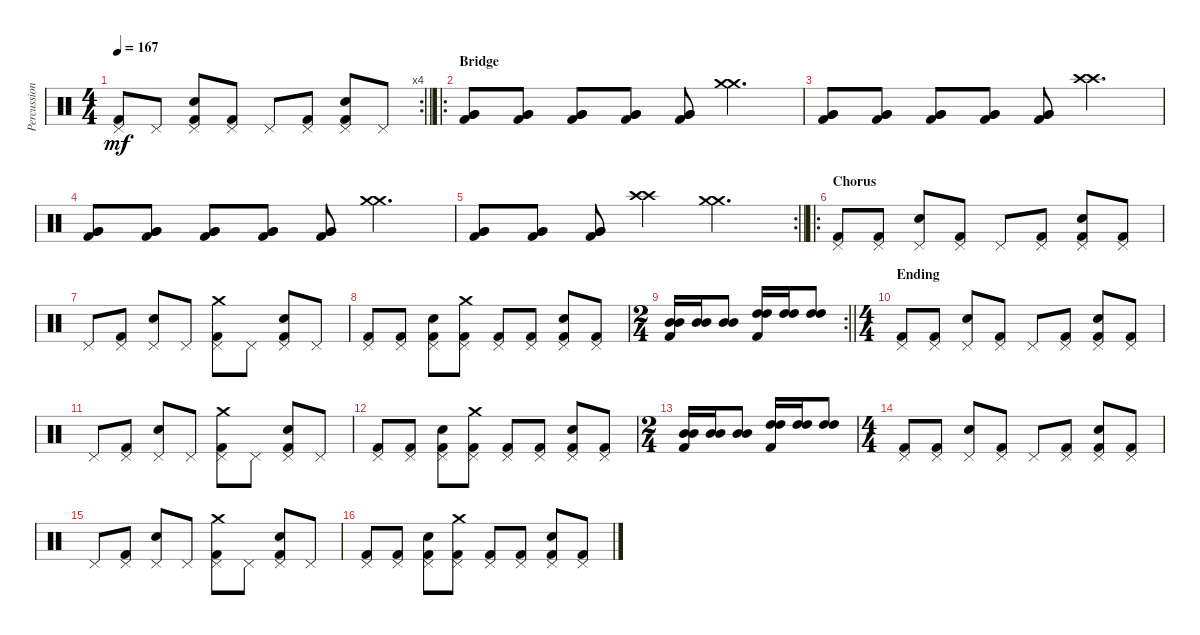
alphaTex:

\track ("Percussioni" "Percussion") {instrument percussion}
\staff {score}
\articulation defaults
\rc 4
\ts (4 4)
\tempo 167
\clef neutral
\barLineRight lightlight
\ks c
("Pedal Hi-Hat (hit)" "Kick (hit) 2").8{dy mf} "Pedal Hi-Hat (hit)".8 ("Pedal Hi-Hat (hit)" "Electric Snare (hit)" "Kick (hit) 2").8 ("Pedal Hi-Hat (hit)" "Kick (hit) 2").8 "Pedal Hi-Hat (hit)".8 ("Pedal Hi-Hat (hit)" "Kick (hit) 2").8 ("Pedal Hi-Hat (hit)" "Electric Snare (hit)" "Kick (hit) 2").8 "Pedal Hi-Hat (hit)".8 |
\ro
\section ("" "Bridge")
("Very Low Tom (hit)" "Very Low Tom (hit)" "Kick (hit) 2").8 ("Very Low Tom (hit)" "Very Low Tom (hit)" "Kick (hit) 2").8 ("Very Low Tom (hit)" "Very Low Tom (hit)" "Kick (hit) 2").8 ("Very Low Tom (hit)" "Very Low Tom (hit)" "Kick (hit) 2").8 ("Very Low Tom (hit)" "Very Low Tom (hit)" "Kick (hit) 2").8 ("Crash medium (hit)" "Crash medium (hit)").4{d} |
("Very Low Tom (hit)" "Very Low Tom (hit)" "Kick (hit) 2").8 ("Very Low Tom (hit)" "Very Low Tom (hit)" "Kick (hit) 2").8 ("Very Low Tom (hit)" "Very Low Tom (hit)" "Kick (hit) 2").8 ("Very Low Tom (hit)" "Very Low Tom (hit)" "Kick (hit) 2").8 ("Very Low Tom (hit)" "Very Low Tom (hit)" "Kick (hit) 2").8 ("Crash high (hit)" "Crash high (hit)").4{d} |
("Very Low Tom (hit)" "Very Low Tom (hit)" "Kick (hit) 2").8 ("Very Low Tom (hit)" "Very Low Tom (hit)" "Kick (hit) 2").8 ("Very Low Tom (hit)" "Very Low Tom (hit)" "Kick (hit) 2").8 ("Very Low Tom (hit)" "Very Low Tom (hit)" "Kick (hit) 2").8 ("Very Low Tom (hit)" "Very Low Tom (hit)" "Kick (hit) 2").8 ("Crash medium (hit)" "Crash medium (hit)").4{d} |
\rc 2
\barLineRight lightlight
("Very Low Tom (hit)" "Very Low Tom (hit)" "Kick (hit) 2").8 ("Very Low Tom (hit)" "Very Low Tom (hit)" "Kick (hit) 2").8 ("Very Low Tom (hit)" "Very Low Tom (hit)" "Kick (hit) 2").8 ("Crash high (hit)" "Crash high (hit)").4 ("Crash medium (hit)" "Crash medium (hit)").4{d} |
\ro
\section ("" "Chorus")
("Pedal Hi-Hat (hit)" "Kick (hit) 2").8 ("Pedal Hi-Hat (hit)" "Kick (hit) 2").8 ("Pedal Hi-Hat (hit)" "Electric Snare (hit)").8 ("Pedal Hi-Hat (hit)" "Kick (hit) 2").8 "Pedal Hi-Hat (hit)".8 ("Pedal Hi-Hat (hit)" "Kick (hit) 2").8 ("Pedal Hi-Hat (hit)" "Electric Snare (hit)" "Kick (hit) 2").8 ("Pedal Hi-Hat (hit)" "Kick (hit) 2").8 |
"Pedal Hi-Hat (hit)".8 ("Pedal Hi-Hat (hit)" "Kick (hit) 2").8 ("Pedal Hi-Hat (hit)" "Electric Snare (hit)").8 "Pedal Hi-Hat (hit)".8 ("Crash medium (hit)" "Pedal Hi-Hat (hit)" "Kick (hit) 2").8 "Pedal Hi-Hat (hit)".8 ("Pedal Hi-Hat (hit)" "Electric Snare (hit)" "Kick (hit) 2").8 "Pedal Hi-Hat (hit)".8 |
("Pedal Hi-Hat (hit)" "Kick (hit) 2").8 ("Pedal Hi-Hat (hit)" "Kick (hit) 2").8 ("Pedal Hi-Hat (hit)" "Electric Snare (hit)" "Kick (hit) 2").8 ("Crash medium (hit)" "Pedal Hi-Hat (hit)" "Kick (hit) 2").8 ("Pedal Hi-Hat (hit)" "Kick (hit) 2").8 ("Pedal Hi-Hat (hit)" "Kick (hit) 2").8 ("Pedal Hi-Hat (hit)" "Electric Snare (hit)" "Kick (hit) 2").8 ("Pedal Hi-Hat (hit)" "Kick (hit) 2").8 |
\rc 2
\ts (2 4)
\barLineRight lightlight
("Mid Tom (hit)" "Mid Tom (hit)" "Kick (hit) 2").16 ("Mid Tom (hit)" "Mid Tom (hit)").16 ("Mid Tom (hit)" "Mid Tom (hit)").8 ("High Tom (hit)" "High Tom (hit)" "Kick (hit) 2").16 ("High Tom (hit)" "High Tom (hit)").16 ("High Tom (hit)" "High Tom (hit)").8 |
\ts (4 4)
\section ("" "Ending")
("Pedal Hi-Hat (hit)" "Kick (hit) 2").8 ("Pedal Hi-Hat (hit)" "Kick (hit) 2").8 ("Pedal Hi-Hat (hit)" "Electric Snare (hit)").8 ("Pedal Hi-Hat (hit)" "Kick (hit) 2").8 "Pedal Hi-Hat (hit)".8 ("Pedal Hi-Hat (hit)" "Kick (hit) 2").8 ("Pedal Hi-Hat (hit)" "Electric Snare (hit)" "Kick (hit) 2").8 ("Pedal Hi-Hat (hit)" "Kick (hit) 2").8 |
"Pedal Hi-Hat (hit)".8 ("Pedal Hi-Hat (hit)" "Kick (hit) 2").8 ("Pedal Hi-Hat (hit)" "Electric Snare (hit)").8 "Pedal Hi-Hat (hit)".8 ("Crash medium (hit)" "Pedal Hi-Hat (hit)" "Kick (hit) 2").8 "Pedal Hi-Hat (hit)".8 ("Pedal Hi-Hat (hit)" "Electric Snare (hit)" "Kick (hit) 2").8 "Pedal Hi-Hat (hit)".8 |
("Pedal Hi-Hat (hit)" "Kick (hit) 2").8 ("Pedal Hi-Hat (hit)" "Kick (hit) 2").8 ("Pedal Hi-Hat (hit)" "Electric Snare (hit)" "Kick (hit) 2").8 ("Crash medium (hit)" "Pedal Hi-Hat (hit)" "Kick (hit) 2").8 ("Pedal Hi-Hat (hit)" "Kick (hit) 2").8 ("Pedal Hi-Hat (hit)" "Kick (hit) 2").8 ("Pedal Hi-Hat (hit)" "Electric Snare (hit)" "Kick (hit) 2").8 ("Pedal Hi-Hat (hit)" "Kick (hit) 2").8 |
\ts (2 4)
("Mid Tom (hit)" "Mid Tom (hit)" "Kick (hit) 2").16 ("Mid Tom (hit)" "Mid Tom (hit)").16 ("Mid Tom (hit)" "Mid Tom (hit)").8 ("High Tom (hit)" "High Tom (hit)" "Kick (hit) 2").16 ("High Tom (hit)" "High Tom (hit)").16 ("High Tom (hit)" "High Tom (hit)").8 |
\ts (4 4)
("Pedal Hi-Hat (hit)" "Kick (hit) 2").8 ("Pedal Hi-Hat (hit)" "Kick (hit) 2").8 ("Pedal Hi-Hat (hit)" "Electric Snare (hit)").8 ("Pedal Hi-Hat (hit)" "Kick (hit) 2").8 "Pedal Hi-Hat (hit)".8 ("Pedal Hi-Hat (hit)" "Kick (hit) 2").8 ("Pedal Hi-Hat (hit)" "Electric Snare (hit)" "Kick (hit) 2").8 ("Pedal Hi-Hat (hit)" "Kick (hit) 2").8 |
"Pedal Hi-Hat (hit)".8 ("Pedal Hi-Hat (hit)" "Kick (hit) 2").8 ("Pedal Hi-Hat (hit)" "Electric Snare (hit)").8 "Pedal Hi-Hat (hit)".8 ("Crash medium (hit)" "Pedal Hi-Hat (hit)" "Kick (hit) 2").8 "Pedal Hi-Hat (hit)".8 ("Pedal Hi-Hat (hit)" "Electric Snare (hit)" "Kick (hit) 2").8 "Pedal Hi-Hat (hit)".8 |
("Pedal Hi-Hat (hit)" "Kick (hit) 2").8 ("Pedal Hi-Hat (hit)" "Kick (hit) 2").8 ("Pedal Hi-Hat (hit)" "Electric Snare (hit)" "Kick (hit) 2").8 ("Crash medium (hit)" "Pedal Hi-Hat (hit)" "Kick (hit) 2").8 ("Pedal Hi-Hat (hit)" "Kick (hit) 2").8 ("Pedal Hi-Hat (hit)" "Kick (hit) 2").8 ("Pedal Hi-Hat (hit)" "Electric Snare (hit)" "Kick (hit) 2").8 ("Pedal Hi-Hat (hit)" "Kick (hit) 2").8
